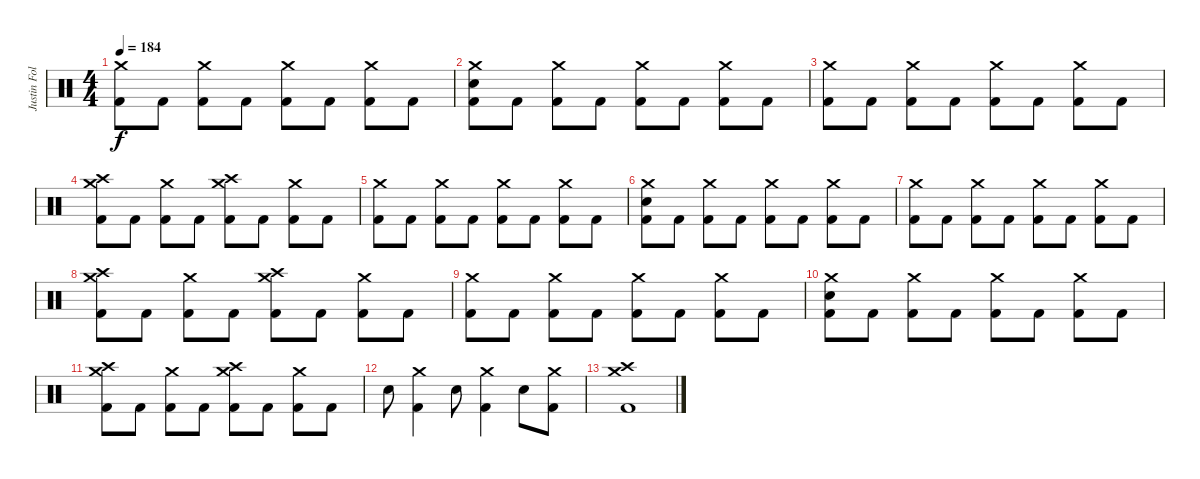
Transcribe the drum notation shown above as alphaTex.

\track ("Justin Foley" "Justin Fol") {instrument percussion}
\staff {score}
\articulation defaults
\ts (4 4)
\tempo 184
\clef neutral
\ks c
("Crash medium (hit)" "Kick (hit) 2").8{dy f} "Kick (hit) 2".8 ("Crash medium (hit)" "Kick (hit) 2").8 "Kick (hit) 2".8 ("Crash medium (hit)" "Kick (hit) 2").8 "Kick (hit) 2".8 ("Crash medium (hit)" "Kick (hit) 2").8 "Kick (hit) 2".8 |
("Crash medium (hit)" "Electric Snare (hit)" "Kick (hit) 2").8 "Kick (hit) 2".8 ("Crash medium (hit)" "Kick (hit) 2").8 "Kick (hit) 2".8 ("Crash medium (hit)" "Kick (hit) 2").8 "Kick (hit) 2".8 ("Crash medium (hit)" "Kick (hit) 2").8 "Kick (hit) 2".8 |
("Crash medium (hit)" "Kick (hit) 2").8 "Kick (hit) 2".8 ("Crash medium (hit)" "Kick (hit) 2").8 "Kick (hit) 2".8 ("Crash medium (hit)" "Kick (hit) 2").8 "Kick (hit) 2".8 ("Crash medium (hit)" "Kick (hit) 2").8 "Kick (hit) 2".8 |
("Crash medium (hit)" "Crash high (hit)" "Kick (hit) 2").8 "Kick (hit) 2".8 ("Crash medium (hit)" "Kick (hit) 2").8 "Kick (hit) 2".8 ("Crash medium (hit)" "Crash high (hit)" "Kick (hit) 2").8 "Kick (hit) 2".8 ("Crash medium (hit)" "Kick (hit) 2").8 "Kick (hit) 2".8 |
("Crash medium (hit)" "Kick (hit) 2").8 "Kick (hit) 2".8 ("Crash medium (hit)" "Kick (hit) 2").8 "Kick (hit) 2".8 ("Crash medium (hit)" "Kick (hit) 2").8 "Kick (hit) 2".8 ("Crash medium (hit)" "Kick (hit) 2").8 "Kick (hit) 2".8 |
("Crash medium (hit)" "Electric Snare (hit)" "Kick (hit) 2").8 "Kick (hit) 2".8 ("Crash medium (hit)" "Kick (hit) 2").8 "Kick (hit) 2".8 ("Crash medium (hit)" "Kick (hit) 2").8 "Kick (hit) 2".8 ("Crash medium (hit)" "Kick (hit) 2").8 "Kick (hit) 2".8 |
("Crash medium (hit)" "Kick (hit) 2").8 "Kick (hit) 2".8 ("Crash medium (hit)" "Kick (hit) 2").8 "Kick (hit) 2".8 ("Crash medium (hit)" "Kick (hit) 2").8 "Kick (hit) 2".8 ("Crash medium (hit)" "Kick (hit) 2").8 "Kick (hit) 2".8 |
("Crash medium (hit)" "Crash high (hit)" "Kick (hit) 2").8 "Kick (hit) 2".8 ("Crash medium (hit)" "Kick (hit) 2").8 "Kick (hit) 2".8 ("Crash medium (hit)" "Crash high (hit)" "Kick (hit) 2").8 "Kick (hit) 2".8 ("Crash medium (hit)" "Kick (hit) 2").8 "Kick (hit) 2".8 |
("Crash medium (hit)" "Kick (hit) 2").8 "Kick (hit) 2".8 ("Crash medium (hit)" "Kick (hit) 2").8 "Kick (hit) 2".8 ("Crash medium (hit)" "Kick (hit) 2").8 "Kick (hit) 2".8 ("Crash medium (hit)" "Kick (hit) 2").8 "Kick (hit) 2".8 |
("Crash medium (hit)" "Electric Snare (hit)" "Kick (hit) 2").8 "Kick (hit) 2".8 ("Crash medium (hit)" "Kick (hit) 2").8 "Kick (hit) 2".8 ("Crash medium (hit)" "Kick (hit) 2").8 "Kick (hit) 2".8 ("Crash medium (hit)" "Kick (hit) 2").8 "Kick (hit) 2".8 |
("Crash medium (hit)" "Crash high (hit)" "Kick (hit) 2").8 "Kick (hit) 2".8 ("Crash medium (hit)" "Kick (hit) 2").8 "Kick (hit) 2".8 ("Crash medium (hit)" "Crash high (hit)" "Kick (hit) 2").8 "Kick (hit) 2".8 ("Crash medium (hit)" "Kick (hit) 2").8 "Kick (hit) 2".8 |
"Electric Snare (hit)".8 ("Crash medium (hit)" "Kick (hit) 2").4 "Electric Snare (hit)".8 ("Crash medium (hit)" "Kick (hit) 2").4 "Electric Snare (hit)".8 ("Crash medium (hit)" "Kick (hit) 2").8 |
("Crash medium (hit)" "Crash high (hit)" "Kick (hit) 2").1
